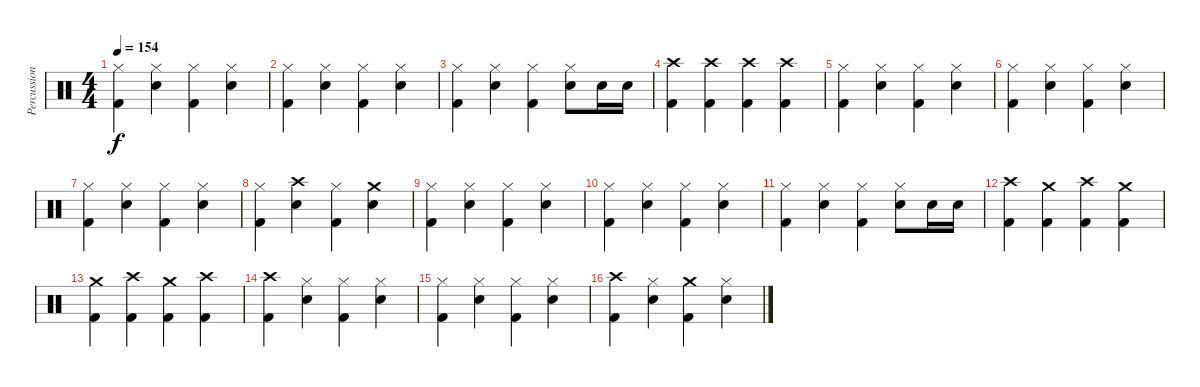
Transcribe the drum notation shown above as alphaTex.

\track ("Percussion" "Percussion") {instrument percussion}
\staff {score}
\articulation defaults
\ts (4 4)
\tempo 154
\clef neutral
\ks c
("Hi-Hat (closed)" "Kick (hit) 2").4{dy f} ("Hi-Hat (closed)" "Snare (hit) 2").4 ("Hi-Hat (closed)" "Kick (hit) 2").4 ("Hi-Hat (closed)" "Snare (hit) 2").4 |
("Hi-Hat (closed)" "Kick (hit) 2").4 ("Hi-Hat (closed)" "Snare (hit) 2").4 ("Hi-Hat (closed)" "Kick (hit) 2").4 ("Hi-Hat (closed)" "Snare (hit) 2").4 |
("Hi-Hat (closed)" "Kick (hit) 2").4 ("Hi-Hat (closed)" "Snare (hit) 2").4 ("Hi-Hat (closed)" "Kick (hit) 2").4 ("Hi-Hat (closed)" "Snare (hit) 2").8 "Snare (hit) 2".16 "Snare (hit) 2".16 |
("Crash high (hit)" "Kick (hit) 2").4 ("Crash high (hit)" "Kick (hit) 2").4 ("Crash high (hit)" "Kick (hit) 2").4 ("Crash high (hit)" "Kick (hit) 2").4 |
("Hi-Hat (closed)" "Kick (hit) 2").4 ("Hi-Hat (closed)" "Snare (hit) 2").4 ("Hi-Hat (closed)" "Kick (hit) 2").4 ("Hi-Hat (closed)" "Snare (hit) 2").4 |
("Hi-Hat (closed)" "Kick (hit) 2").4 ("Hi-Hat (closed)" "Snare (hit) 2").4 ("Hi-Hat (closed)" "Kick (hit) 2").4 ("Hi-Hat (closed)" "Snare (hit) 2").4 |
("Hi-Hat (closed)" "Kick (hit) 2").4 ("Hi-Hat (closed)" "Snare (hit) 2").4 ("Hi-Hat (closed)" "Kick (hit) 2").4 ("Hi-Hat (closed)" "Snare (hit) 2").4 |
("Hi-Hat (closed)" "Kick (hit) 2").4 ("Crash high (hit)" "Snare (hit) 2").4 ("Hi-Hat (closed)" "Kick (hit) 2").4 ("Crash medium (hit)" "Snare (hit) 2").4 |
("Hi-Hat (closed)" "Kick (hit) 2").4 ("Hi-Hat (closed)" "Snare (hit) 2").4 ("Hi-Hat (closed)" "Kick (hit) 2").4 ("Hi-Hat (closed)" "Snare (hit) 2").4 |
("Hi-Hat (closed)" "Kick (hit) 2").4 ("Hi-Hat (closed)" "Snare (hit) 2").4 ("Hi-Hat (closed)" "Kick (hit) 2").4 ("Hi-Hat (closed)" "Snare (hit) 2").4 |
("Hi-Hat (closed)" "Kick (hit) 2").4 ("Hi-Hat (closed)" "Snare (hit) 2").4 ("Hi-Hat (closed)" "Kick (hit) 2").4 ("Hi-Hat (closed)" "Snare (hit) 2").8 "Snare (hit) 2".16 "Snare (hit) 2".16 |
("Crash high (hit)" "Kick (hit) 2").4 ("Crash medium (hit)" "Kick (hit) 2").4 ("Crash high (hit)" "Kick (hit) 2").4 ("Crash medium (hit)" "Kick (hit) 2").4 |
("Crash medium (hit)" "Kick (hit) 2").4 ("Crash high (hit)" "Kick (hit) 2").4 ("Crash medium (hit)" "Kick (hit) 2").4 ("Crash high (hit)" "Kick (hit) 2").4 |
("Crash high (hit)" "Kick (hit) 2").4 ("Hi-Hat (closed)" "Snare (hit) 2").4 ("Hi-Hat (closed)" "Kick (hit) 2").4 ("Hi-Hat (closed)" "Snare (hit) 2").4 |
("Hi-Hat (closed)" "Kick (hit) 2").4 ("Hi-Hat (closed)" "Snare (hit) 2").4 ("Hi-Hat (closed)" "Kick (hit) 2").4 ("Hi-Hat (closed)" "Snare (hit) 2").4 |
("Crash high (hit)" "Kick (hit) 2").4 ("Hi-Hat (closed)" "Snare (hit) 2").4 ("Crash medium (hit)" "Kick (hit) 2").4 ("Hi-Hat (closed)" "Snare (hit) 2").4
